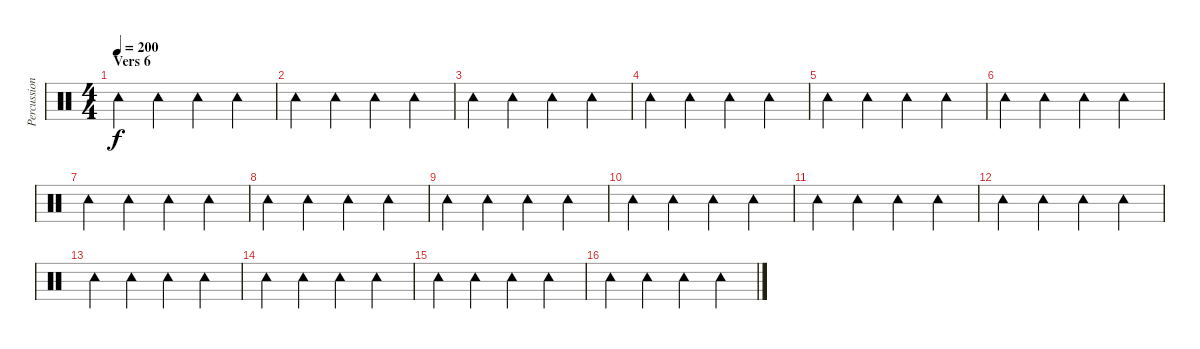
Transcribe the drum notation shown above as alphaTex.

\track ("Percussion" "Percussion") {instrument percussion}
\staff {score}
\articulation defaults
\ts (4 4)
\section ("" "Vers 6")
\tempo 200
\clef neutral
\ks c "Tambourine (hit)".4{dy f} "Tambourine (hit)".4 "Tambourine (hit)".4 "Tambourine (hit)".4
|
"Tambourine (hit)".4 "Tambourine (hit)".4 "Tambourine (hit)".4 "Tambourine (hit)".4 |
"Tambourine (hit)".4 "Tambourine (hit)".4 "Tambourine (hit)".4 "Tambourine (hit)".4 |
"Tambourine (hit)".4 "Tambourine (hit)".4 "Tambourine (hit)".4 "Tambourine (hit)".4 |
"Tambourine (hit)".4 "Tambourine (hit)".4 "Tambourine (hit)".4 "Tambourine (hit)".4 |
"Tambourine (hit)".4 "Tambourine (hit)".4 "Tambourine (hit)".4 "Tambourine (hit)".4 |
"Tambourine (hit)".4 "Tambourine (hit)".4 "Tambourine (hit)".4 "Tambourine (hit)".4 |
"Tambourine (hit)".4 "Tambourine (hit)".4 "Tambourine (hit)".4 "Tambourine (hit)".4 |
"Tambourine (hit)".4 "Tambourine (hit)".4 "Tambourine (hit)".4 "Tambourine (hit)".4 |
"Tambourine (hit)".4 "Tambourine (hit)".4 "Tambourine (hit)".4 "Tambourine (hit)".4 |
"Tambourine (hit)".4 "Tambourine (hit)".4 "Tambourine (hit)".4 "Tambourine (hit)".4 |
"Tambourine (hit)".4 "Tambourine (hit)".4 "Tambourine (hit)".4 "Tambourine (hit)".4 |
"Tambourine (hit)".4 "Tambourine (hit)".4 "Tambourine (hit)".4 "Tambourine (hit)".4 |
"Tambourine (hit)".4 "Tambourine (hit)".4 "Tambourine (hit)".4 "Tambourine (hit)".4 |
"Tambourine (hit)".4 "Tambourine (hit)".4 "Tambourine (hit)".4 "Tambourine (hit)".4 |
"Tambourine (hit)".4 "Tambourine (hit)".4 "Tambourine (hit)".4 "Tambourine (hit)".4
